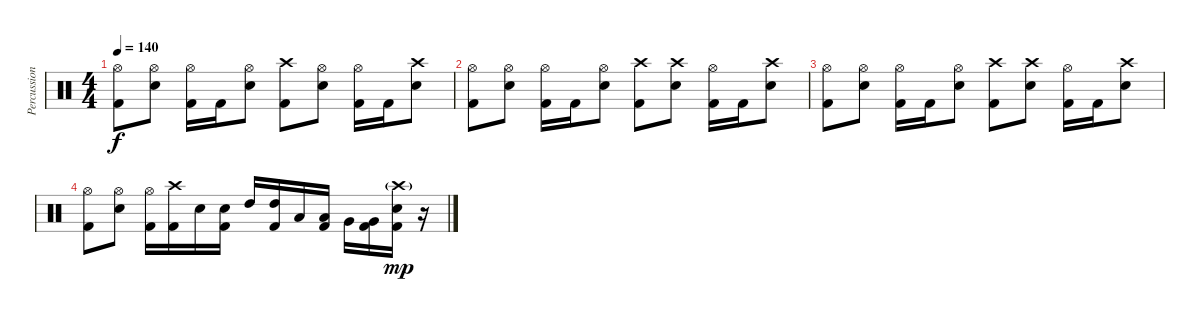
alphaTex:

\track ("Percussions" "Percussion") {instrument percussion}
\staff {score}
\articulation defaults
\ts (4 4)
\tempo 140
\clef neutral
\ks c
("Hi-Hat (open)" "Kick (hit) 2").8{dy f} ("Hi-Hat (open)" "Snare (hit) 2").8 ("Hi-Hat (open)" "Kick (hit) 2").16 "Kick (hit) 2".16 ("Hi-Hat (open)" "Snare (hit) 2").8 ("Crash high (hit)" "Kick (hit) 2").8 ("Hi-Hat (open)" "Snare (hit) 2").8 ("Hi-Hat (open)" "Kick (hit) 2").16 "Kick (hit) 2".16 ("Crash high (hit)" "Snare (hit) 2").8 |
("Hi-Hat (open)" "Kick (hit) 2").8 ("Hi-Hat (open)" "Snare (hit) 2").8 ("Hi-Hat (open)" "Kick (hit) 2").16 "Kick (hit) 2".16 ("Hi-Hat (open)" "Snare (hit) 2").8 ("Crash high (hit)" "Kick (hit) 2").8 ("Crash high (hit)" "Snare (hit) 2").8 ("Hi-Hat (open)" "Kick (hit) 2").16 "Kick (hit) 2".16 ("Crash high (hit)" "Snare (hit) 2").8 |
("Hi-Hat (open)" "Kick (hit) 2").8 ("Hi-Hat (open)" "Snare (hit) 2").8 ("Hi-Hat (open)" "Kick (hit) 2").16 "Kick (hit) 2".16 ("Hi-Hat (open)" "Snare (hit) 2").8 ("Crash high (hit)" "Kick (hit) 2").8 ("Crash high (hit)" "Snare (hit) 2").8 ("Hi-Hat (open)" "Kick (hit) 2").16 "Kick (hit) 2".16 ("Crash high (hit)" "Snare (hit) 2").8 |
("Hi-Hat (open)" "Kick (hit) 2").8 ("Hi-Hat (open)" "Snare (hit) 2").8 ("Hi-Hat (open)" "Kick (hit) 2").16 ("Crash high (hit)" "Kick (hit) 2").16 "Snare (hit) 2".16 ("Snare (hit) 2" "Kick (hit) 2").16 "High Tom (hit)".16 ("High Tom (hit)" "Kick (hit) 2").16 "Low Tom (hit)".16 ("Low Tom (hit)" "Kick (hit) 2").16 "Very Low Tom (hit)".16 ("Very Low Tom (hit)" "Kick (hit) 2").16 ("Kick (hit) 2" "Snare (hit) 2" "Crash high (hit)"{g}).16{dy mp} r.16
